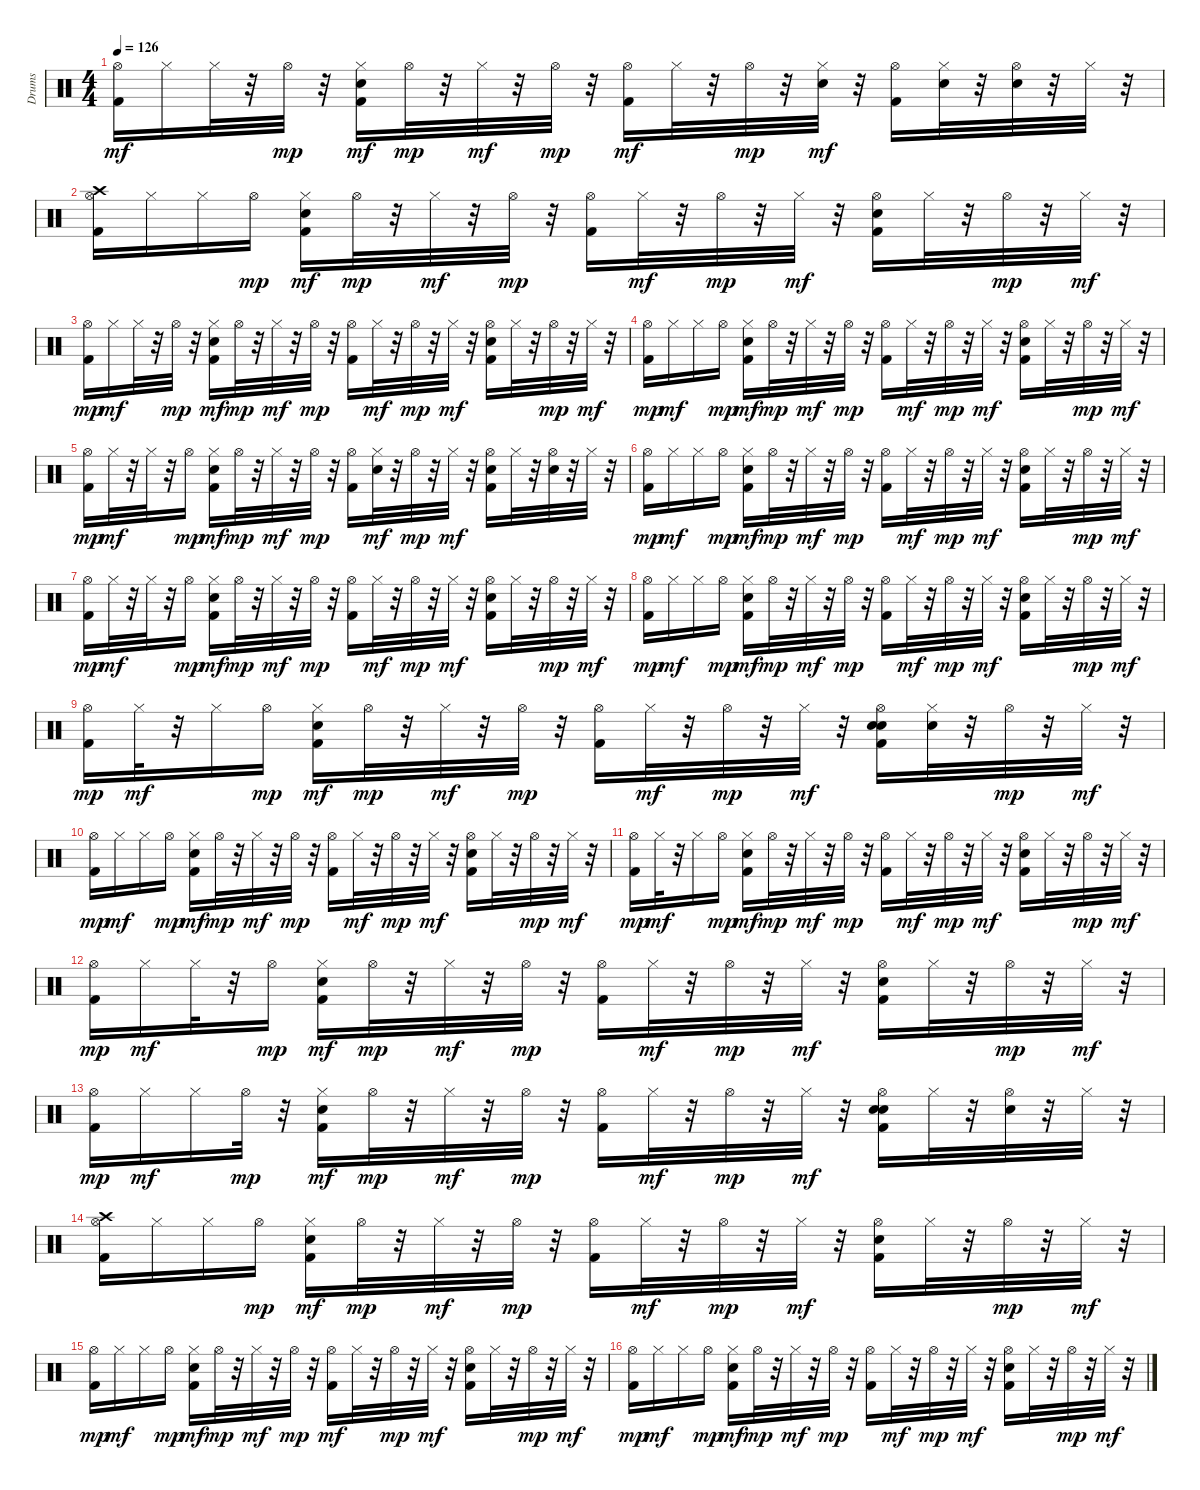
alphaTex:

\track ("Drums" "Drums") {instrument percussion}
\staff {score}
\articulation defaults
\ts (4 4)
\tempo 126
\clef neutral
\ks c
("Hi-Hat (open)" "Kick (hit) 2").16{dy mf} "Hi-Hat (closed)".16 "Hi-Hat (closed)".32 r.32 "Hi-Hat (open)".32{dy mp} r.32 ("Hi-Hat (closed)" "Kick (hit) 2" "Electric Snare (hit)").16{dy mf} "Hi-Hat (open)".32{dy mp} r.32 "Hi-Hat (closed)".32{dy mf} r.32 "Hi-Hat (open)".32{dy mp} r.32 ("Hi-Hat (open)" "Kick (hit) 2").16{dy mf} "Hi-Hat (closed)".32 r.32 "Hi-Hat (open)".32{dy mp} r.32 ("Hi-Hat (closed)" "Snare (hit) 2").32{dy mf} r.32 ("Hi-Hat (open)" "Kick (hit) 2").16 ("Hi-Hat (closed)" "Snare (hit) 2").32 r.32 ("Hi-Hat (open)" "Snare (hit) 2").32 r.32 "Hi-Hat (closed)".32 r.32 |
("Kick (hit) 2" "Hi-Hat (open)" "Crash high (hit)").16 "Hi-Hat (closed)".16 "Hi-Hat (closed)".16 "Hi-Hat (open)".16{dy mp} ("Kick (hit) 2" "Hi-Hat (closed)" "Electric Snare (hit)").16{dy mf} "Hi-Hat (open)".32{dy mp} r.32 "Hi-Hat (closed)".32{dy mf} r.32 "Hi-Hat (open)".32{dy mp} r.32 ("Kick (hit) 2" "Hi-Hat (open)").16 "Hi-Hat (closed)".32{dy mf} r.32 "Hi-Hat (open)".32{dy mp} r.32 "Hi-Hat (closed)".32{dy mf} r.32 ("Kick (hit) 2" "Hi-Hat (open)" "Electric Snare (hit)").16 "Hi-Hat (closed)".32 r.32 "Hi-Hat (open)".32{dy mp} r.32 "Hi-Hat (closed)".32{dy mf} r.32 |
("Kick (hit) 2" "Hi-Hat (open)").16{dy mp} "Hi-Hat (closed)".16{dy mf} "Hi-Hat (closed)".32 r.32 "Hi-Hat (open)".32{dy mp} r.32 ("Kick (hit) 2" "Hi-Hat (closed)" "Electric Snare (hit)").16{dy mf} "Hi-Hat (open)".32{dy mp} r.32 "Hi-Hat (closed)".32{dy mf} r.32 "Hi-Hat (open)".32{dy mp} r.32 ("Kick (hit) 2" "Hi-Hat (open)").16 "Hi-Hat (closed)".32{dy mf} r.32 "Hi-Hat (open)".32{dy mp} r.32 "Hi-Hat (closed)".32{dy mf} r.32 ("Kick (hit) 2" "Hi-Hat (open)" "Electric Snare (hit)").16 "Hi-Hat (closed)".32 r.32 "Hi-Hat (open)".32{dy mp} r.32 "Hi-Hat (closed)".32{dy mf} r.32 |
("Kick (hit) 2" "Hi-Hat (open)").16{dy mp} "Hi-Hat (closed)".16{dy mf} "Hi-Hat (closed)".16 "Hi-Hat (open)".16{dy mp} ("Kick (hit) 2" "Hi-Hat (closed)" "Electric Snare (hit)").16{dy mf} "Hi-Hat (open)".32{dy mp} r.32 "Hi-Hat (closed)".32{dy mf} r.32 "Hi-Hat (open)".32{dy mp} r.32 ("Kick (hit) 2" "Hi-Hat (open)").16 "Hi-Hat (closed)".32{dy mf} r.32 "Hi-Hat (open)".32{dy mp} r.32 "Hi-Hat (closed)".32{dy mf} r.32 ("Kick (hit) 2" "Hi-Hat (open)" "Electric Snare (hit)").16 "Hi-Hat (closed)".32 r.32 "Hi-Hat (open)".32{dy mp} r.32 "Hi-Hat (closed)".32{dy mf} r.32 |
("Kick (hit) 2" "Hi-Hat (open)").16{dy mp} "Hi-Hat (closed)".32{dy mf} r.32 "Hi-Hat (closed)".32 r.32 "Hi-Hat (open)".16{dy mp} ("Kick (hit) 2" "Hi-Hat (closed)" "Electric Snare (hit)").16{dy mf} "Hi-Hat (open)".32{dy mp} r.32 "Hi-Hat (closed)".32{dy mf} r.32 "Hi-Hat (open)".32{dy mp} r.32 ("Kick (hit) 2" "Hi-Hat (open)").16 ("Hi-Hat (closed)" "Snare (hit) 2").32{dy mf} r.32 "Hi-Hat (open)".32{dy mp} r.32 "Hi-Hat (closed)".32{dy mf} r.32 ("Kick (hit) 2" "Hi-Hat (open)" "Snare (hit) 2").16 "Hi-Hat (closed)".32 r.32 ("Hi-Hat (open)" "Snare (hit) 2").32 r.32 "Hi-Hat (closed)".32 r.32 |
("Kick (hit) 2" "Hi-Hat (open)").16{dy mp} "Hi-Hat (closed)".16{dy mf} "Hi-Hat (closed)".16 "Hi-Hat (open)".16{dy mp} ("Kick (hit) 2" "Hi-Hat (closed)" "Electric Snare (hit)").16{dy mf} "Hi-Hat (open)".32{dy mp} r.32 "Hi-Hat (closed)".32{dy mf} r.32 "Hi-Hat (open)".32{dy mp} r.32 ("Kick (hit) 2" "Hi-Hat (open)").16 "Hi-Hat (closed)".32{dy mf} r.32 "Hi-Hat (open)".32{dy mp} r.32 "Hi-Hat (closed)".32{dy mf} r.32 ("Kick (hit) 2" "Hi-Hat (open)" "Electric Snare (hit)").16 "Hi-Hat (closed)".32 r.32 "Hi-Hat (open)".32{dy mp} r.32 "Hi-Hat (closed)".32{dy mf} r.32 |
("Kick (hit) 2" "Hi-Hat (open)").16{dy mp} "Hi-Hat (closed)".32{dy mf} r.32 "Hi-Hat (closed)".32 r.32 "Hi-Hat (open)".16{dy mp} ("Kick (hit) 2" "Hi-Hat (closed)" "Electric Snare (hit)").16{dy mf} "Hi-Hat (open)".32{dy mp} r.32 "Hi-Hat (closed)".32{dy mf} r.32 "Hi-Hat (open)".32{dy mp} r.32 ("Kick (hit) 2" "Hi-Hat (open)").16 "Hi-Hat (closed)".32{dy mf} r.32 "Hi-Hat (open)".32{dy mp} r.32 "Hi-Hat (closed)".32{dy mf} r.32 ("Kick (hit) 2" "Hi-Hat (open)" "Electric Snare (hit)").16 "Hi-Hat (closed)".32 r.32 "Hi-Hat (open)".32{dy mp} r.32 "Hi-Hat (closed)".32{dy mf} r.32 |
("Kick (hit) 2" "Hi-Hat (open)").16{dy mp} "Hi-Hat (closed)".16{dy mf} "Hi-Hat (closed)".16 "Hi-Hat (open)".16{dy mp} ("Kick (hit) 2" "Hi-Hat (closed)" "Electric Snare (hit)").16{dy mf} "Hi-Hat (open)".32{dy mp} r.32 "Hi-Hat (closed)".32{dy mf} r.32 "Hi-Hat (open)".32{dy mp} r.32 ("Kick (hit) 2" "Hi-Hat (open)").16 "Hi-Hat (closed)".32{dy mf} r.32 "Hi-Hat (open)".32{dy mp} r.32 "Hi-Hat (closed)".32{dy mf} r.32 ("Kick (hit) 2" "Hi-Hat (open)" "Electric Snare (hit)").16 "Hi-Hat (closed)".32 r.32 "Hi-Hat (open)".32{dy mp} r.32 "Hi-Hat (closed)".32{dy mf} r.32 |
("Kick (hit) 2" "Hi-Hat (open)").16{dy mp} "Hi-Hat (closed)".32{dy mf} r.32 "Hi-Hat (closed)".16 "Hi-Hat (open)".16{dy mp} ("Kick (hit) 2" "Hi-Hat (closed)" "Electric Snare (hit)").16{dy mf} "Hi-Hat (open)".32{dy mp} r.32 "Hi-Hat (closed)".32{dy mf} r.32 "Hi-Hat (open)".32{dy mp} r.32 ("Kick (hit) 2" "Hi-Hat (open)").16 "Hi-Hat (closed)".32{dy mf} r.32 "Hi-Hat (open)".32{dy mp} r.32 "Hi-Hat (closed)".32{dy mf} r.32 ("Kick (hit) 2" "Hi-Hat (open)" "Snare (hit) 2" "Electric Snare (hit)").16 ("Hi-Hat (closed)" "Snare (hit) 2").32 r.32 "Hi-Hat (open)".32{dy mp} r.32 "Hi-Hat (closed)".32{dy mf} r.32 |
("Kick (hit) 2" "Hi-Hat (open)").16{dy mp} "Hi-Hat (closed)".16{dy mf} "Hi-Hat (closed)".16 "Hi-Hat (open)".16{dy mp} ("Kick (hit) 2" "Hi-Hat (closed)" "Electric Snare (hit)").16{dy mf} "Hi-Hat (open)".32{dy mp} r.32 "Hi-Hat (closed)".32{dy mf} r.32 "Hi-Hat (open)".32{dy mp} r.32 ("Kick (hit) 2" "Hi-Hat (open)").16 "Hi-Hat (closed)".32{dy mf} r.32 "Hi-Hat (open)".32{dy mp} r.32 "Hi-Hat (closed)".32{dy mf} r.32 ("Kick (hit) 2" "Hi-Hat (open)" "Electric Snare (hit)").16 "Hi-Hat (closed)".32 r.32 "Hi-Hat (open)".32{dy mp} r.32 "Hi-Hat (closed)".32{dy mf} r.32 |
("Kick (hit) 2" "Hi-Hat (open)").16{dy mp} "Hi-Hat (closed)".32{dy mf} r.32 "Hi-Hat (closed)".16 "Hi-Hat (open)".16{dy mp} ("Kick (hit) 2" "Hi-Hat (closed)" "Electric Snare (hit)").16{dy mf} "Hi-Hat (open)".32{dy mp} r.32 "Hi-Hat (closed)".32{dy mf} r.32 "Hi-Hat (open)".32{dy mp} r.32 ("Kick (hit) 2" "Hi-Hat (open)").16 "Hi-Hat (closed)".32{dy mf} r.32 "Hi-Hat (open)".32{dy mp} r.32 "Hi-Hat (closed)".32{dy mf} r.32 ("Kick (hit) 2" "Hi-Hat (open)" "Electric Snare (hit)").16 "Hi-Hat (closed)".32 r.32 "Hi-Hat (open)".32{dy mp} r.32 "Hi-Hat (closed)".32{dy mf} r.32 |
("Kick (hit) 2" "Hi-Hat (open)").16{dy mp} "Hi-Hat (closed)".16{dy mf} "Hi-Hat (closed)".32 r.32 "Hi-Hat (open)".16{dy mp} ("Kick (hit) 2" "Hi-Hat (closed)" "Electric Snare (hit)").16{dy mf} "Hi-Hat (open)".32{dy mp} r.32 "Hi-Hat (closed)".32{dy mf} r.32 "Hi-Hat (open)".32{dy mp} r.32 ("Kick (hit) 2" "Hi-Hat (open)").16 "Hi-Hat (closed)".32{dy mf} r.32 "Hi-Hat (open)".32{dy mp} r.32 "Hi-Hat (closed)".32{dy mf} r.32 ("Kick (hit) 2" "Hi-Hat (open)" "Electric Snare (hit)").16 "Hi-Hat (closed)".32 r.32 "Hi-Hat (open)".32{dy mp} r.32 "Hi-Hat (closed)".32{dy mf} r.32 |
("Kick (hit) 2" "Hi-Hat (open)").16{dy mp} "Hi-Hat (closed)".16{dy mf} "Hi-Hat (closed)".16 "Hi-Hat (open)".32{dy mp} r.32 ("Kick (hit) 2" "Hi-Hat (closed)" "Electric Snare (hit)").16{dy mf} "Hi-Hat (open)".32{dy mp} r.32 "Hi-Hat (closed)".32{dy mf} r.32 "Hi-Hat (open)".32{dy mp} r.32 ("Kick (hit) 2" "Hi-Hat (open)").16 "Hi-Hat (closed)".32{dy mf} r.32 "Hi-Hat (open)".32{dy mp} r.32 "Hi-Hat (closed)".32{dy mf} r.32 ("Kick (hit) 2" "Hi-Hat (open)" "Snare (hit) 2" "Electric Snare (hit)").16 "Hi-Hat (closed)".32 r.32 ("Hi-Hat (open)" "Snare (hit) 2").32 r.32 "Hi-Hat (closed)".32 r.32 |
("Kick (hit) 2" "Hi-Hat (open)" "Crash high (hit)").16 "Hi-Hat (closed)".16 "Hi-Hat (closed)".16 "Hi-Hat (open)".16{dy mp} ("Hi-Hat (closed)" "Kick (hit) 2" "Electric Snare (hit)").16{dy mf} "Hi-Hat (open)".32{dy mp} r.32 "Hi-Hat (closed)".32{dy mf} r.32 "Hi-Hat (open)".32{dy mp} r.32 ("Kick (hit) 2" "Hi-Hat (open)").16 "Hi-Hat (closed)".32{dy mf} r.32 "Hi-Hat (open)".32{dy mp} r.32 "Hi-Hat (closed)".32{dy mf} r.32 ("Kick (hit) 2" "Hi-Hat (open)" "Electric Snare (hit)").16 "Hi-Hat (closed)".32 r.32 "Hi-Hat (open)".32{dy mp} r.32 "Hi-Hat (closed)".32{dy mf} r.32 |
("Kick (hit) 2" "Hi-Hat (open)").16{dy mp} "Hi-Hat (closed)".16{dy mf} "Hi-Hat (closed)".16 "Hi-Hat (open)".16{dy mp} ("Kick (hit) 2" "Hi-Hat (closed)" "Electric Snare (hit)").16{dy mf} "Hi-Hat (open)".32{dy mp} r.32 "Hi-Hat (closed)".32{dy mf} r.32 "Hi-Hat (open)".32{dy mp} r.32 ("Hi-Hat (open)" "Kick (hit) 2").16{dy mf} "Hi-Hat (closed)".32 r.32 "Hi-Hat (open)".32{dy mp} r.32 "Hi-Hat (closed)".32{dy mf} r.32 ("Kick (hit) 2" "Hi-Hat (open)" "Electric Snare (hit)").16 "Hi-Hat (closed)".32 r.32 "Hi-Hat (open)".32{dy mp} r.32 "Hi-Hat (closed)".32{dy mf} r.32 |
("Kick (hit) 2" "Hi-Hat (open)").16{dy mp} "Hi-Hat (closed)".16{dy mf} "Hi-Hat (closed)".16 "Hi-Hat (open)".16{dy mp} ("Hi-Hat (closed)" "Kick (hit) 2" "Electric Snare (hit)").16{dy mf} "Hi-Hat (open)".32{dy mp} r.32 "Hi-Hat (closed)".32{dy mf} r.32 "Hi-Hat (open)".32{dy mp} r.32 ("Kick (hit) 2" "Hi-Hat (open)").16 "Hi-Hat (closed)".32{dy mf} r.32 "Hi-Hat (open)".32{dy mp} r.32 "Hi-Hat (closed)".32{dy mf} r.32 ("Kick (hit) 2" "Hi-Hat (open)" "Electric Snare (hit)").16 "Hi-Hat (closed)".32 r.32 "Hi-Hat (open)".32{dy mp} r.32 "Hi-Hat (closed)".32{dy mf} r.32
